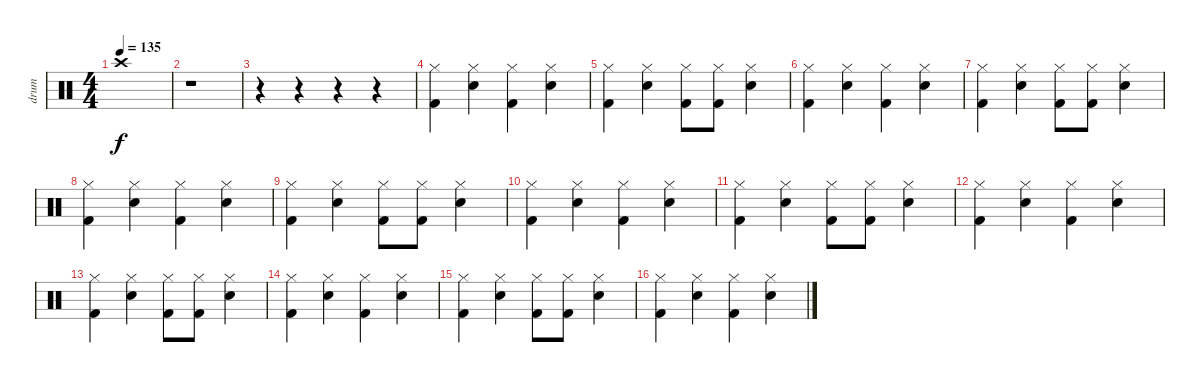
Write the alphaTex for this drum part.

\track ("drum" "drum") {instrument percussion}
\staff {score}
\articulation defaults
\ts (4 4)
\tempo 135
\clef neutral
\ks c "Crash high (hit)".1{dy f}
|
r.1 |
r.4 r.4 r.4 r.4 |
("Hi-Hat (closed)" "Kick (hit) 2").4 ("Hi-Hat (closed)" "Snare (hit) 2").4 ("Hi-Hat (closed)" "Kick (hit) 2").4 ("Hi-Hat (closed)" "Snare (hit) 2").4 |
("Hi-Hat (closed)" "Kick (hit) 2").4 ("Hi-Hat (closed)" "Snare (hit) 2").4 ("Hi-Hat (closed)" "Kick (hit) 2").8 ("Hi-Hat (closed)" "Kick (hit) 2").8 ("Hi-Hat (closed)" "Snare (hit) 2").4 |
("Hi-Hat (closed)" "Kick (hit) 2").4 ("Hi-Hat (closed)" "Snare (hit) 2").4 ("Hi-Hat (closed)" "Kick (hit) 2").4 ("Hi-Hat (closed)" "Snare (hit) 2").4 |
("Hi-Hat (closed)" "Kick (hit) 2").4 ("Hi-Hat (closed)" "Snare (hit) 2").4 ("Hi-Hat (closed)" "Kick (hit) 2").8 ("Hi-Hat (closed)" "Kick (hit) 2").8 ("Hi-Hat (closed)" "Snare (hit) 2").4 |
("Hi-Hat (closed)" "Kick (hit) 2").4 ("Hi-Hat (closed)" "Snare (hit) 2").4 ("Hi-Hat (closed)" "Kick (hit) 2").4 ("Hi-Hat (closed)" "Snare (hit) 2").4 |
("Hi-Hat (closed)" "Kick (hit) 2").4 ("Hi-Hat (closed)" "Snare (hit) 2").4 ("Hi-Hat (closed)" "Kick (hit) 2").8 ("Hi-Hat (closed)" "Kick (hit) 2").8 ("Hi-Hat (closed)" "Snare (hit) 2").4 |
("Hi-Hat (closed)" "Kick (hit) 2").4 ("Hi-Hat (closed)" "Snare (hit) 2").4 ("Hi-Hat (closed)" "Kick (hit) 2").4 ("Hi-Hat (closed)" "Snare (hit) 2").4 |
("Hi-Hat (closed)" "Kick (hit) 2").4 ("Hi-Hat (closed)" "Snare (hit) 2").4 ("Hi-Hat (closed)" "Kick (hit) 2").8 ("Hi-Hat (closed)" "Kick (hit) 2").8 ("Hi-Hat (closed)" "Snare (hit) 2").4 |
("Hi-Hat (closed)" "Kick (hit) 2").4 ("Hi-Hat (closed)" "Snare (hit) 2").4 ("Hi-Hat (closed)" "Kick (hit) 2").4 ("Hi-Hat (closed)" "Snare (hit) 2").4 |
("Hi-Hat (closed)" "Kick (hit) 2").4 ("Hi-Hat (closed)" "Snare (hit) 2").4 ("Hi-Hat (closed)" "Kick (hit) 2").8 ("Hi-Hat (closed)" "Kick (hit) 2").8 ("Hi-Hat (closed)" "Snare (hit) 2").4 |
("Hi-Hat (closed)" "Kick (hit) 2").4 ("Hi-Hat (closed)" "Snare (hit) 2").4 ("Hi-Hat (closed)" "Kick (hit) 2").4 ("Hi-Hat (closed)" "Snare (hit) 2").4 |
("Hi-Hat (closed)" "Kick (hit) 2").4 ("Hi-Hat (closed)" "Snare (hit) 2").4 ("Hi-Hat (closed)" "Kick (hit) 2").8 ("Hi-Hat (closed)" "Kick (hit) 2").8 ("Hi-Hat (closed)" "Snare (hit) 2").4 |
("Hi-Hat (closed)" "Kick (hit) 2").4 ("Hi-Hat (closed)" "Snare (hit) 2").4 ("Hi-Hat (closed)" "Kick (hit) 2").4 ("Hi-Hat (closed)" "Snare (hit) 2").4
